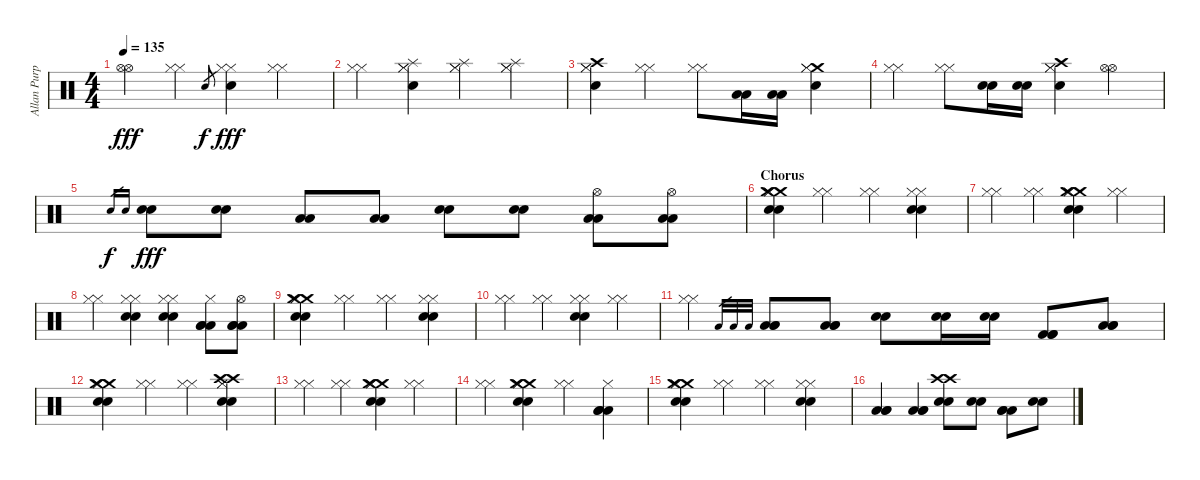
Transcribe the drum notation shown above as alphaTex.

\track ("Allan Purple" "Allan Purp") {instrument percussion}
\staff {score}
\articulation defaults
\ts (4 4)
\tempo 135
\clef neutral
\ks c
("Hi-Hat (open)" "Hi-Hat (open)").4{dy fff} ("Hi-Hat (closed)" "Hi-Hat (closed)").4 "Electric Snare (hit)".8{gr dy f} ("Hi-Hat (closed)" "Hi-Hat (closed)" "Electric Snare (hit)").4{dy fff} ("Hi-Hat (closed)" "Hi-Hat (closed)").4 |
("Hi-Hat (closed)" "Hi-Hat (closed)").4 ("Splash (hit)" "Hi-Hat (closed)" "Hi-Hat (closed)" "Electric Snare (hit)").4 ("Splash (hit)" "Hi-Hat (closed)" "Hi-Hat (closed)").4 ("Splash (hit)" "Hi-Hat (closed)" "Hi-Hat (closed)").4 |
("Crash high (hit)" "Hi-Hat (closed)" "Hi-Hat (closed)" "Electric Snare (hit)").4 ("Hi-Hat (closed)" "Hi-Hat (closed)").4 ("Hi-Hat (closed)" "Hi-Hat (closed)").8 ("Low Tom (hit)" "Low Tom (hit)").16 ("Low Tom (hit)" "Low Tom (hit)").16 ("Crash medium (hit)" "Hi-Hat (closed)" "Hi-Hat (closed)" "Electric Snare (hit)").4 |
("Hi-Hat (closed)" "Hi-Hat (closed)").4 ("Hi-Hat (closed)" "Hi-Hat (closed)").8 ("Electric Snare (hit)" "Electric Snare (hit)").16 ("Electric Snare (hit)" "Electric Snare (hit)").16 ("Crash high (hit)" "Hi-Hat (closed)" "Hi-Hat (closed)" "Electric Snare (hit)").4 ("Hi-Hat (open)" "Hi-Hat (open)").4 |
"Electric Snare (hit)".16{gr dy f} "Electric Snare (hit)".16{gr} ("Electric Snare (hit)" "Electric Snare (hit)").8{dy fff} ("Electric Snare (hit)" "Electric Snare (hit)").8 ("Low Tom (hit)" "Low Tom (hit)").8 ("Low Tom (hit)" "Low Tom (hit)").8 ("Electric Snare (hit)" "Electric Snare (hit)").8 ("Electric Snare (hit)" "Electric Snare (hit)").8 ("Hi-Hat (open)" "Low Tom (hit)" "Low Tom (hit)").8 ("Hi-Hat (open)" "Low Tom (hit)" "Low Tom (hit)").8 |
\section ("" "Chorus")
("Crash medium (hit)" "Crash medium (hit)" "Hi-Hat (closed)" "Hi-Hat (closed)" "Electric Snare (hit)" "Electric Snare (hit)").4 ("Hi-Hat (closed)" "Hi-Hat (closed)").4 ("Hi-Hat (closed)" "Hi-Hat (closed)").4 ("Hi-Hat (closed)" "Hi-Hat (closed)" "Electric Snare (hit)" "Electric Snare (hit)").4 |
("Hi-Hat (closed)" "Hi-Hat (closed)").4 ("Hi-Hat (closed)" "Hi-Hat (closed)").4 ("Crash medium (hit)" "Crash medium (hit)" "Hi-Hat (closed)" "Hi-Hat (closed)" "Electric Snare (hit)" "Electric Snare (hit)").4 ("Hi-Hat (closed)" "Hi-Hat (closed)").4 |
("Hi-Hat (closed)" "Hi-Hat (closed)").4 ("Hi-Hat (closed)" "Hi-Hat (closed)" "Electric Snare (hit)" "Electric Snare (hit)").4 ("Hi-Hat (closed)" "Hi-Hat (closed)" "Electric Snare (hit)" "Electric Snare (hit)").4 ("Hi-Hat (closed)" "Low Tom (hit)" "Low Tom (hit)" "Low Tom (hit)").8 ("Hi-Hat (open)" "Low Tom (hit)" "Low Tom (hit)" "Low Tom (hit)").8 |
("Crash medium (hit)" "Crash medium (hit)" "Hi-Hat (closed)" "Hi-Hat (closed)" "Electric Snare (hit)" "Electric Snare (hit)").4 ("Hi-Hat (closed)" "Hi-Hat (closed)").4 ("Hi-Hat (closed)" "Hi-Hat (closed)").4 ("Hi-Hat (closed)" "Hi-Hat (closed)" "Electric Snare (hit)" "Electric Snare (hit)").4 |
("Hi-Hat (closed)" "Hi-Hat (closed)").4 ("Hi-Hat (closed)" "Hi-Hat (closed)").4 ("Hi-Hat (closed)" "Hi-Hat (closed)" "Electric Snare (hit)" "Electric Snare (hit)").4 ("Hi-Hat (closed)" "Hi-Hat (closed)").4 |
("Hi-Hat (closed)" "Hi-Hat (closed)").4 "Low Tom (hit)".32{gr} "Low Tom (hit)".32{gr} "Low Tom (hit)".32{gr} ("Low Tom (hit)" "Low Tom (hit)" "Low Tom (hit)").8 ("Low Tom (hit)" "Low Tom (hit)" "Low Tom (hit)").8 ("Electric Snare (hit)" "Electric Snare (hit)").8 ("Electric Snare (hit)" "Electric Snare (hit)").16 ("Electric Snare (hit)" "Electric Snare (hit)").16 ("Kick (hit) 2" "Kick (hit) 2" "Kick (hit) 2").8 ("Low Tom (hit)" "Low Tom (hit)" "Low Tom (hit)").8 |
("Crash medium (hit)" "Crash medium (hit)" "Hi-Hat (closed)" "Hi-Hat (closed)" "Electric Snare (hit)" "Electric Snare (hit)").4 ("Hi-Hat (closed)" "Hi-Hat (closed)").4 ("Hi-Hat (closed)" "Hi-Hat (closed)").4 ("Crash high (hit)" "Crash high (hit)" "Hi-Hat (closed)" "Hi-Hat (closed)" "Electric Snare (hit)" "Electric Snare (hit)").4 |
("Hi-Hat (closed)" "Hi-Hat (closed)").4 ("Hi-Hat (closed)" "Hi-Hat (closed)").4 ("Crash medium (hit)" "Crash medium (hit)" "Hi-Hat (closed)" "Hi-Hat (closed)" "Electric Snare (hit)" "Electric Snare (hit)").4 ("Hi-Hat (closed)" "Hi-Hat (closed)").4 |
("Hi-Hat (closed)" "Hi-Hat (closed)").4 ("Crash medium (hit)" "Crash medium (hit)" "Hi-Hat (closed)" "Hi-Hat (closed)" "Electric Snare (hit)" "Electric Snare (hit)").4 ("Hi-Hat (closed)" "Hi-Hat (closed)").4 ("Hi-Hat (closed)" "Low Tom (hit)" "Low Tom (hit)" "Low Tom (hit)").4 |
("Crash medium (hit)" "Crash medium (hit)" "Hi-Hat (closed)" "Hi-Hat (closed)" "Electric Snare (hit)" "Electric Snare (hit)").4 ("Hi-Hat (closed)" "Hi-Hat (closed)").4 ("Hi-Hat (closed)" "Hi-Hat (closed)").4 ("Hi-Hat (closed)" "Hi-Hat (closed)" "Electric Snare (hit)" "Electric Snare (hit)").4 |
("Low Tom (hit)" "Low Tom (hit)" "Low Tom (hit)").4 ("Low Tom (hit)" "Low Tom (hit)" "Low Tom (hit)").4 ("Crash high (hit)" "Crash high (hit)" "Electric Snare (hit)" "Electric Snare (hit)").8 ("Electric Snare (hit)" "Electric Snare (hit)").8 ("Low Tom (hit)" "Low Tom (hit)" "Low Tom (hit)").8 ("Electric Snare (hit)" "Electric Snare (hit)").8
